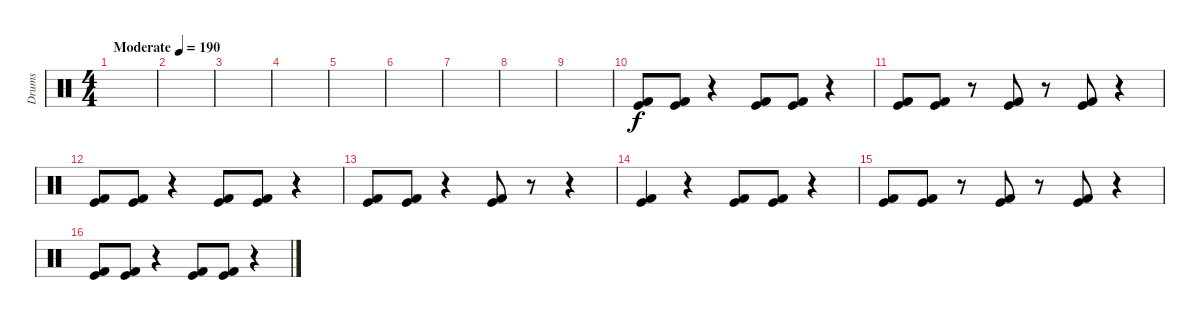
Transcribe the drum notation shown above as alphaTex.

\track ("Drums" "Drums") {instrument percussion}
\staff {score}
\articulation defaults
\ts (4 4)
\tempo (190 "Moderate")
\clef neutral
\ks c
|
|
|
|
|
|
|
|
|
("Kick (hit) 2" "Kick (hit)").8 ("Kick (hit) 2" "Kick (hit)").8 r.4 ("Kick (hit) 2" "Kick (hit)").8 ("Kick (hit) 2" "Kick (hit)").8 r.4 |
("Kick (hit) 2" "Kick (hit)").8 ("Kick (hit) 2" "Kick (hit)").8 r.8 ("Kick (hit) 2" "Kick (hit)").8 r.8 ("Kick (hit) 2" "Kick (hit)").8 r.4 |
("Kick (hit) 2" "Kick (hit)").8 ("Kick (hit) 2" "Kick (hit)").8 r.4 ("Kick (hit) 2" "Kick (hit)").8 ("Kick (hit) 2" "Kick (hit)").8 r.4 |
("Kick (hit) 2" "Kick (hit)").8 ("Kick (hit) 2" "Kick (hit)").8 r.4 ("Kick (hit) 2" "Kick (hit)").8 r.8 r.4 |
("Kick (hit) 2" "Kick (hit)").4 r.4 ("Kick (hit) 2" "Kick (hit)").8 ("Kick (hit) 2" "Kick (hit)").8 r.4 |
("Kick (hit) 2" "Kick (hit)").8 ("Kick (hit) 2" "Kick (hit)").8 r.8 ("Kick (hit) 2" "Kick (hit)").8 r.8 ("Kick (hit) 2" "Kick (hit)").8 r.4 |
("Kick (hit) 2" "Kick (hit)").8 ("Kick (hit) 2" "Kick (hit)").8 r.4 ("Kick (hit) 2" "Kick (hit)").8 ("Kick (hit) 2" "Kick (hit)").8 r.4
